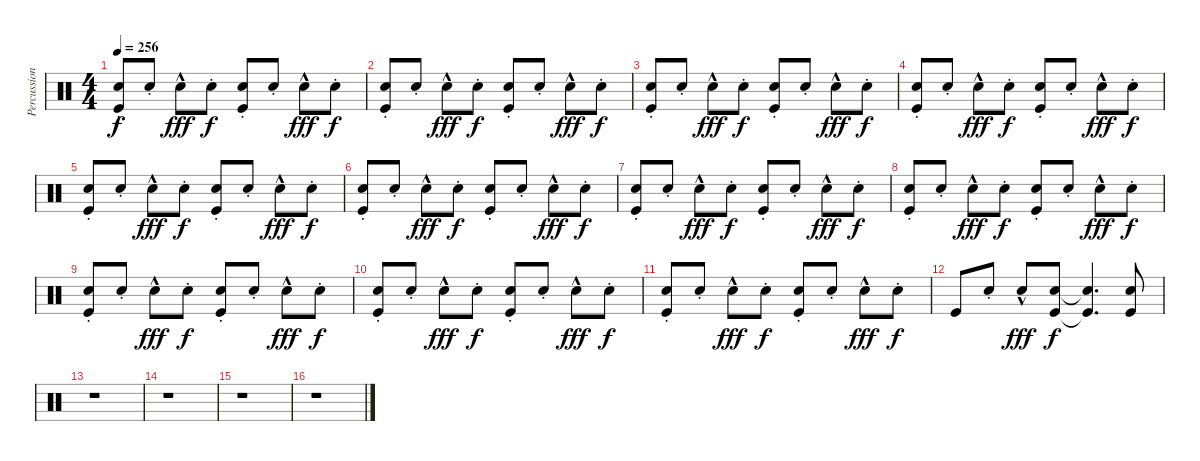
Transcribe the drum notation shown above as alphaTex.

\track ("Percussion" "Percussion") {instrument percussion}
\staff {score}
\articulation defaults
\ts (4 4)
\tempo 256
\clef neutral
\ks c
("Snare (hit) 2"{st} "Kick (hit)").8{dy f} "Snare (hit) 2"{st}.8 "Snare (hit) 2"{hac}.8{dy fff} "Snare (hit) 2"{st}.8{dy f} ("Snare (hit) 2"{st} "Kick (hit)").8 "Snare (hit) 2"{st}.8 "Snare (hit) 2"{hac}.8{dy fff} "Snare (hit) 2"{st}.8{dy f} |
("Snare (hit) 2"{st} "Kick (hit)").8 "Snare (hit) 2"{st}.8 "Snare (hit) 2"{hac}.8{dy fff} "Snare (hit) 2"{st}.8{dy f} ("Snare (hit) 2"{st} "Kick (hit)").8 "Snare (hit) 2"{st}.8 "Snare (hit) 2"{hac}.8{dy fff} "Snare (hit) 2"{st}.8{dy f} |
("Snare (hit) 2"{st} "Kick (hit)").8 "Snare (hit) 2"{st}.8 "Snare (hit) 2"{hac}.8{dy fff} "Snare (hit) 2"{st}.8{dy f} ("Snare (hit) 2"{st} "Kick (hit)").8 "Snare (hit) 2"{st}.8 "Snare (hit) 2"{hac}.8{dy fff} "Snare (hit) 2"{st}.8{dy f} |
("Snare (hit) 2"{st} "Kick (hit)").8 "Snare (hit) 2"{st}.8 "Snare (hit) 2"{hac}.8{dy fff} "Snare (hit) 2"{st}.8{dy f} ("Snare (hit) 2"{st} "Kick (hit)").8 "Snare (hit) 2"{st}.8 "Snare (hit) 2"{hac}.8{dy fff} "Snare (hit) 2"{st}.8{dy f} |
("Snare (hit) 2"{st} "Kick (hit)").8 "Snare (hit) 2"{st}.8 "Snare (hit) 2"{hac}.8{dy fff} "Snare (hit) 2"{st}.8{dy f} ("Snare (hit) 2"{st} "Kick (hit)").8 "Snare (hit) 2"{st}.8 "Snare (hit) 2"{hac}.8{dy fff} "Snare (hit) 2"{st}.8{dy f} |
("Snare (hit) 2"{st} "Kick (hit)").8 "Snare (hit) 2"{st}.8 "Snare (hit) 2"{hac}.8{dy fff} "Snare (hit) 2"{st}.8{dy f} ("Snare (hit) 2"{st} "Kick (hit)").8 "Snare (hit) 2"{st}.8 "Snare (hit) 2"{hac}.8{dy fff} "Snare (hit) 2"{st}.8{dy f} |
("Snare (hit) 2"{st} "Kick (hit)").8 "Snare (hit) 2"{st}.8 "Snare (hit) 2"{hac}.8{dy fff} "Snare (hit) 2"{st}.8{dy f} ("Snare (hit) 2"{st} "Kick (hit)").8 "Snare (hit) 2"{st}.8 "Snare (hit) 2"{hac}.8{dy fff} "Snare (hit) 2"{st}.8{dy f} |
("Snare (hit) 2"{st} "Kick (hit)").8 "Snare (hit) 2"{st}.8 "Snare (hit) 2"{hac}.8{dy fff} "Snare (hit) 2"{st}.8{dy f} ("Snare (hit) 2"{st} "Kick (hit)").8 "Snare (hit) 2"{st}.8 "Snare (hit) 2"{hac}.8{dy fff} "Snare (hit) 2"{st}.8{dy f} |
("Snare (hit) 2"{st} "Kick (hit)").8 "Snare (hit) 2"{st}.8 "Snare (hit) 2"{hac}.8{dy fff} "Snare (hit) 2"{st}.8{dy f} ("Snare (hit) 2"{st} "Kick (hit)").8 "Snare (hit) 2"{st}.8 "Snare (hit) 2"{hac}.8{dy fff} "Snare (hit) 2"{st}.8{dy f} |
("Snare (hit) 2"{st} "Kick (hit)").8 "Snare (hit) 2"{st}.8 "Snare (hit) 2"{hac}.8{dy fff} "Snare (hit) 2"{st}.8{dy f} ("Snare (hit) 2"{st} "Kick (hit)").8 "Snare (hit) 2"{st}.8 "Snare (hit) 2"{hac}.8{dy fff} "Snare (hit) 2"{st}.8{dy f} |
("Snare (hit) 2"{st} "Kick (hit)").8 "Snare (hit) 2"{st}.8 "Snare (hit) 2"{hac}.8{dy fff} "Snare (hit) 2"{st}.8{dy f} ("Snare (hit) 2"{st} "Kick (hit)").8 "Snare (hit) 2"{st}.8 "Snare (hit) 2"{hac}.8{dy fff} "Snare (hit) 2"{st}.8{dy f} |
"Kick (hit)".8 "Snare (hit) 2"{st}.8 "Snare (hit) 2"{hac}.8{dy fff} ("Snare (hit) 2" "Kick (hit)").8{dy f} ("Snare (hit) 2"{t} "Kick (hit)"{t}).4{d} ("Snare (hit) 2" "Kick (hit)").8 |
r.1 |
r.1 |
r.1 |
r.1
